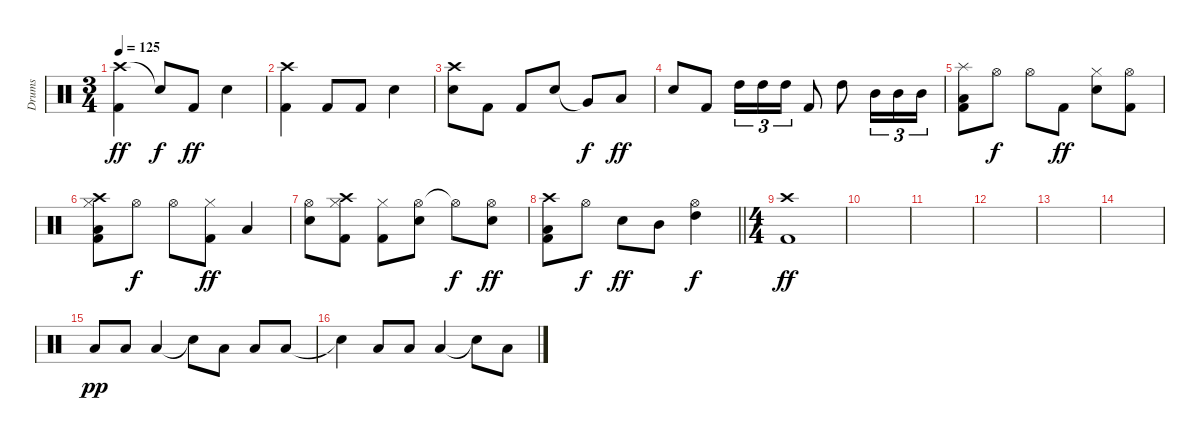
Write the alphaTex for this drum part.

\track ("Drums" "Drums") {instrument percussion}
\staff {score}
\articulation defaults
\ts (3 4)
\section ("" "")
\tempo 125
\clef neutral
\ks c
("Crash high (hit)" "Kick (hit) 2").4{dy ff} "Snare (hit)"{t}.8{dy f} "Kick (hit) 2".8{dy ff} "Snare (hit) 2".4 |
("Crash high (hit)" "Kick (hit) 2").4 "Kick (hit) 2".8 "Kick (hit) 2".8 "Snare (hit) 2".4 |
("Crash high (hit)" "Snare (hit) 2").8 "Kick (hit) 2".8 "Kick (hit) 2".8 "Snare (hit) 2".8 "Very Low Tom (hit)"{t}.8{dy f} "Low Floor Tom (hit)".8{dy ff} |
"Snare (hit) 2".8 "Kick (hit) 2".8 "High Tom (hit)".16{tu (3 2)} "High Tom (hit)".16{tu (3 2)} "High Tom (hit)".16{tu (3 2)} "Kick (hit) 2".8 "High Tom (hit)".8 "Mid Tom (hit)".16{tu (3 2)} "Mid Tom (hit)".16{tu (3 2)} "Mid Tom (hit)".16{tu (3 2)} |
("Splash (hit)" "Low Floor Tom (hit)" "Kick (hit) 2").8 "Hi-Hat (open)".8{dy f} "Hi-Hat (open)".8 "Kick (hit) 2".8{dy ff} ("Hi-Hat (closed)" "Snare (hit) 2").8 ("Hi-Hat (open)" "Kick (hit) 2").8 |
("Crash high (hit)" "Hi-Hat (closed)" "Low Floor Tom (hit)" "Kick (hit) 2").8 "Hi-Hat (open)".8{dy f} "Hi-Hat (open)".8 ("Hi-Hat (closed)" "Kick (hit) 2").8{dy ff} "Low Floor Tom (hit)".4 |
("Hi-Hat (open)" "Snare (hit) 2").8 ("Crash high (hit)" "Hi-Hat (closed)" "Kick (hit) 2").8 ("Hi-Hat (closed)" "Kick (hit) 2").8 ("Hi-Hat (open)" "Snare (hit) 2").8 "Hi-Hat (open)"{t}.8{dy f} ("Hi-Hat (open)" "Snare (hit) 2").8{dy ff} |
\barLineRight lightlight
("Crash high (hit)" "Low Floor Tom (hit)" "Kick (hit) 2").8 "Hi-Hat (open)".8{dy f} "Snare (hit) 2".8{dy ff} "Mid Tom (hit)".8 ("Hi-Hat (open)" "High Tom (hit)").4{dy f} |
\ts (4 4)
\section ("" "")
("Crash high (hit)" "Kick (hit) 2").1{dy ff} |
|
|
|
|
|
"Low Tom (hit)".8{dy pp} "Low Tom (hit)".8 "Low Tom (hit)".4 "Snare (hit)"{t}.8 "Low Tom (hit)".8 "Low Tom (hit)".8 "Low Tom (hit)".8 |
"Snare (hit)"{t}.4 "Low Tom (hit)".8 "Low Tom (hit)".8 "Low Tom (hit)".4 "Snare (hit)"{t}.8 "Low Tom (hit)".8
